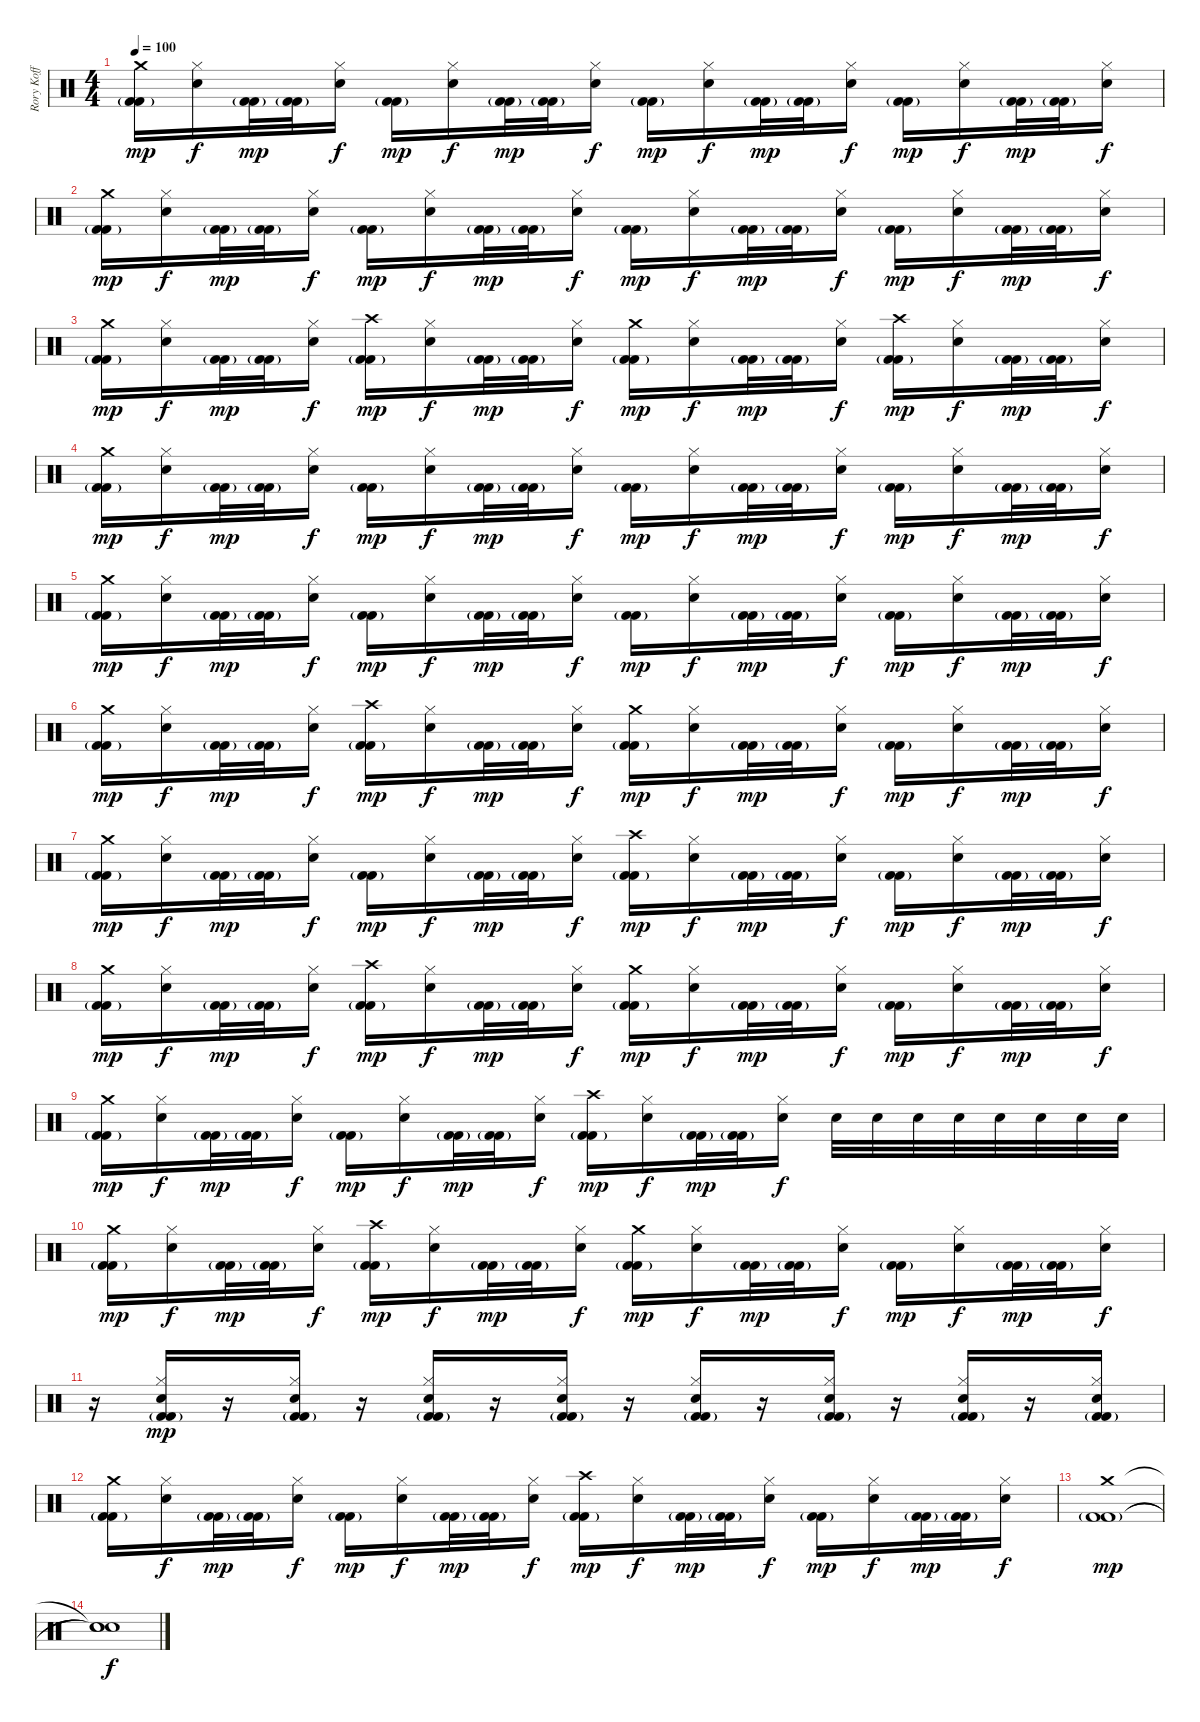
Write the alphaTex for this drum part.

\track ("Rory Koff" "Rory Koff") {instrument percussion}
\staff {score}
\articulation defaults
\ts (4 4)
\tempo 100
\clef neutral
\ks c
("Crash medium (hit)" "Kick (hit) 2"{g} "Kick (hit) 2").16{dy mp} ("Hi-Hat (closed)" "Snare (hit) 2").16{dy f} ("Kick (hit) 2"{g} "Kick (hit) 2").32{dy mp} ("Kick (hit) 2"{g} "Kick (hit) 2").32 ("Hi-Hat (closed)" "Snare (hit) 2").16{dy f} ("Kick (hit) 2"{g} "Kick (hit) 2").16{dy mp} ("Hi-Hat (closed)" "Snare (hit) 2").16{dy f} ("Kick (hit) 2"{g} "Kick (hit) 2").32{dy mp} ("Kick (hit) 2"{g} "Kick (hit) 2").32 ("Hi-Hat (closed)" "Snare (hit) 2").16{dy f} ("Kick (hit) 2"{g} "Kick (hit) 2").16{dy mp} ("Hi-Hat (closed)" "Snare (hit) 2").16{dy f} ("Kick (hit) 2"{g} "Kick (hit) 2").32{dy mp} ("Kick (hit) 2"{g} "Kick (hit) 2").32 ("Hi-Hat (closed)" "Snare (hit) 2").16{dy f} ("Kick (hit) 2"{g} "Kick (hit) 2").16{dy mp} ("Hi-Hat (closed)" "Snare (hit) 2").16{dy f} ("Kick (hit) 2"{g} "Kick (hit) 2").32{dy mp} ("Kick (hit) 2"{g} "Kick (hit) 2").32 ("Hi-Hat (closed)" "Snare (hit) 2").16{dy f} |
("Crash medium (hit)" "Kick (hit) 2"{g} "Kick (hit) 2").16{dy mp} ("Hi-Hat (closed)" "Snare (hit) 2").16{dy f} ("Kick (hit) 2"{g} "Kick (hit) 2").32{dy mp} ("Kick (hit) 2"{g} "Kick (hit) 2").32 ("Hi-Hat (closed)" "Snare (hit) 2").16{dy f} ("Kick (hit) 2"{g} "Kick (hit) 2").16{dy mp} ("Hi-Hat (closed)" "Snare (hit) 2").16{dy f} ("Kick (hit) 2"{g} "Kick (hit) 2").32{dy mp} ("Kick (hit) 2"{g} "Kick (hit) 2").32 ("Hi-Hat (closed)" "Snare (hit) 2").16{dy f} ("Kick (hit) 2"{g} "Kick (hit) 2").16{dy mp} ("Hi-Hat (closed)" "Snare (hit) 2").16{dy f} ("Kick (hit) 2"{g} "Kick (hit) 2").32{dy mp} ("Kick (hit) 2"{g} "Kick (hit) 2").32 ("Hi-Hat (closed)" "Snare (hit) 2").16{dy f} ("Kick (hit) 2"{g} "Kick (hit) 2").16{dy mp} ("Hi-Hat (closed)" "Snare (hit) 2").16{dy f} ("Kick (hit) 2"{g} "Kick (hit) 2").32{dy mp} ("Kick (hit) 2"{g} "Kick (hit) 2").32 ("Hi-Hat (closed)" "Snare (hit) 2").16{dy f} |
("Crash medium (hit)" "Kick (hit) 2"{g} "Kick (hit) 2").16{dy mp} ("Hi-Hat (closed)" "Snare (hit) 2").16{dy f} ("Kick (hit) 2"{g} "Kick (hit) 2").32{dy mp} ("Kick (hit) 2"{g} "Kick (hit) 2").32 ("Hi-Hat (closed)" "Snare (hit) 2").16{dy f} ("Crash high (hit)" "Kick (hit) 2"{g} "Kick (hit) 2").16{dy mp} ("Hi-Hat (closed)" "Snare (hit) 2").16{dy f} ("Kick (hit) 2"{g} "Kick (hit) 2").32{dy mp} ("Kick (hit) 2"{g} "Kick (hit) 2").32 ("Hi-Hat (closed)" "Snare (hit) 2").16{dy f} ("Crash medium (hit)" "Kick (hit) 2"{g} "Kick (hit) 2").16{dy mp} ("Hi-Hat (closed)" "Snare (hit) 2").16{dy f} ("Kick (hit) 2"{g} "Kick (hit) 2").32{dy mp} ("Kick (hit) 2"{g} "Kick (hit) 2").32 ("Hi-Hat (closed)" "Snare (hit) 2").16{dy f} ("Crash high (hit)" "Kick (hit) 2"{g} "Kick (hit) 2").16{dy mp} ("Hi-Hat (closed)" "Snare (hit) 2").16{dy f} ("Kick (hit) 2"{g} "Kick (hit) 2").32{dy mp} ("Kick (hit) 2"{g} "Kick (hit) 2").32 ("Hi-Hat (closed)" "Snare (hit) 2").16{dy f} |
("Crash medium (hit)" "Kick (hit) 2"{g} "Kick (hit) 2").16{dy mp} ("Hi-Hat (closed)" "Snare (hit) 2").16{dy f} ("Kick (hit) 2"{g} "Kick (hit) 2").32{dy mp} ("Kick (hit) 2"{g} "Kick (hit) 2").32 ("Hi-Hat (closed)" "Snare (hit) 2").16{dy f} ("Kick (hit) 2"{g} "Kick (hit) 2").16{dy mp} ("Hi-Hat (closed)" "Snare (hit) 2").16{dy f} ("Kick (hit) 2"{g} "Kick (hit) 2").32{dy mp} ("Kick (hit) 2"{g} "Kick (hit) 2").32 ("Hi-Hat (closed)" "Snare (hit) 2").16{dy f} ("Kick (hit) 2"{g} "Kick (hit) 2").16{dy mp} ("Hi-Hat (closed)" "Snare (hit) 2").16{dy f} ("Kick (hit) 2"{g} "Kick (hit) 2").32{dy mp} ("Kick (hit) 2"{g} "Kick (hit) 2").32 ("Hi-Hat (closed)" "Snare (hit) 2").16{dy f} ("Kick (hit) 2"{g} "Kick (hit) 2").16{dy mp} ("Hi-Hat (closed)" "Snare (hit) 2").16{dy f} ("Kick (hit) 2"{g} "Kick (hit) 2").32{dy mp} ("Kick (hit) 2"{g} "Kick (hit) 2").32 ("Hi-Hat (closed)" "Snare (hit) 2").16{dy f} |
("Crash medium (hit)" "Kick (hit) 2"{g} "Kick (hit) 2").16{dy mp} ("Hi-Hat (closed)" "Snare (hit) 2").16{dy f} ("Kick (hit) 2"{g} "Kick (hit) 2").32{dy mp} ("Kick (hit) 2"{g} "Kick (hit) 2").32 ("Hi-Hat (closed)" "Snare (hit) 2").16{dy f} ("Kick (hit) 2"{g} "Kick (hit) 2").16{dy mp} ("Hi-Hat (closed)" "Snare (hit) 2").16{dy f} ("Kick (hit) 2"{g} "Kick (hit) 2").32{dy mp} ("Kick (hit) 2"{g} "Kick (hit) 2").32 ("Hi-Hat (closed)" "Snare (hit) 2").16{dy f} ("Kick (hit) 2"{g} "Kick (hit) 2").16{dy mp} ("Hi-Hat (closed)" "Snare (hit) 2").16{dy f} ("Kick (hit) 2"{g} "Kick (hit) 2").32{dy mp} ("Kick (hit) 2"{g} "Kick (hit) 2").32 ("Hi-Hat (closed)" "Snare (hit) 2").16{dy f} ("Kick (hit) 2"{g} "Kick (hit) 2").16{dy mp} ("Hi-Hat (closed)" "Snare (hit) 2").16{dy f} ("Kick (hit) 2"{g} "Kick (hit) 2").32{dy mp} ("Kick (hit) 2"{g} "Kick (hit) 2").32 ("Hi-Hat (closed)" "Snare (hit) 2").16{dy f} |
("Crash medium (hit)" "Kick (hit) 2"{g} "Kick (hit) 2").16{dy mp} ("Hi-Hat (closed)" "Snare (hit) 2").16{dy f} ("Kick (hit) 2"{g} "Kick (hit) 2").32{dy mp} ("Kick (hit) 2"{g} "Kick (hit) 2").32 ("Hi-Hat (closed)" "Snare (hit) 2").16{dy f} ("Crash high (hit)" "Kick (hit) 2"{g} "Kick (hit) 2").16{dy mp} ("Hi-Hat (closed)" "Snare (hit) 2").16{dy f} ("Kick (hit) 2"{g} "Kick (hit) 2").32{dy mp} ("Kick (hit) 2"{g} "Kick (hit) 2").32 ("Hi-Hat (closed)" "Snare (hit) 2").16{dy f} ("Crash medium (hit)" "Kick (hit) 2"{g} "Kick (hit) 2").16{dy mp} ("Hi-Hat (closed)" "Snare (hit) 2").16{dy f} ("Kick (hit) 2"{g} "Kick (hit) 2").32{dy mp} ("Kick (hit) 2"{g} "Kick (hit) 2").32 ("Hi-Hat (closed)" "Snare (hit) 2").16{dy f} ("Kick (hit) 2"{g} "Kick (hit) 2").16{dy mp} ("Hi-Hat (closed)" "Snare (hit) 2").16{dy f} ("Kick (hit) 2"{g} "Kick (hit) 2").32{dy mp} ("Kick (hit) 2"{g} "Kick (hit) 2").32 ("Hi-Hat (closed)" "Snare (hit) 2").16{dy f} |
("Crash medium (hit)" "Kick (hit) 2"{g} "Kick (hit) 2").16{dy mp} ("Hi-Hat (closed)" "Snare (hit) 2").16{dy f} ("Kick (hit) 2"{g} "Kick (hit) 2").32{dy mp} ("Kick (hit) 2"{g} "Kick (hit) 2").32 ("Hi-Hat (closed)" "Snare (hit) 2").16{dy f} ("Kick (hit) 2"{g} "Kick (hit) 2").16{dy mp} ("Hi-Hat (closed)" "Snare (hit) 2").16{dy f} ("Kick (hit) 2"{g} "Kick (hit) 2").32{dy mp} ("Kick (hit) 2"{g} "Kick (hit) 2").32 ("Hi-Hat (closed)" "Snare (hit) 2").16{dy f} ("Crash high (hit)" "Kick (hit) 2"{g} "Kick (hit) 2").16{dy mp} ("Hi-Hat (closed)" "Snare (hit) 2").16{dy f} ("Kick (hit) 2"{g} "Kick (hit) 2").32{dy mp} ("Kick (hit) 2"{g} "Kick (hit) 2").32 ("Hi-Hat (closed)" "Snare (hit) 2").16{dy f} ("Kick (hit) 2"{g} "Kick (hit) 2").16{dy mp} ("Hi-Hat (closed)" "Snare (hit) 2").16{dy f} ("Kick (hit) 2"{g} "Kick (hit) 2").32{dy mp} ("Kick (hit) 2"{g} "Kick (hit) 2").32 ("Hi-Hat (closed)" "Snare (hit) 2").16{dy f} |
("Crash medium (hit)" "Kick (hit) 2"{g} "Kick (hit) 2").16{dy mp} ("Hi-Hat (closed)" "Snare (hit) 2").16{dy f} ("Kick (hit) 2"{g} "Kick (hit) 2").32{dy mp} ("Kick (hit) 2"{g} "Kick (hit) 2").32 ("Hi-Hat (closed)" "Snare (hit) 2").16{dy f} ("Crash high (hit)" "Kick (hit) 2"{g} "Kick (hit) 2").16{dy mp} ("Hi-Hat (closed)" "Snare (hit) 2").16{dy f} ("Kick (hit) 2"{g} "Kick (hit) 2").32{dy mp} ("Kick (hit) 2"{g} "Kick (hit) 2").32 ("Hi-Hat (closed)" "Snare (hit) 2").16{dy f} ("Crash medium (hit)" "Kick (hit) 2"{g} "Kick (hit) 2").16{dy mp} ("Hi-Hat (closed)" "Snare (hit) 2").16{dy f} ("Kick (hit) 2"{g} "Kick (hit) 2").32{dy mp} ("Kick (hit) 2"{g} "Kick (hit) 2").32 ("Hi-Hat (closed)" "Snare (hit) 2").16{dy f} ("Kick (hit) 2"{g} "Kick (hit) 2").16{dy mp} ("Hi-Hat (closed)" "Snare (hit) 2").16{dy f} ("Kick (hit) 2"{g} "Kick (hit) 2").32{dy mp} ("Kick (hit) 2"{g} "Kick (hit) 2").32 ("Hi-Hat (closed)" "Snare (hit) 2").16{dy f} |
("Crash medium (hit)" "Kick (hit) 2"{g} "Kick (hit) 2").16{dy mp} ("Hi-Hat (closed)" "Snare (hit) 2").16{dy f} ("Kick (hit) 2"{g} "Kick (hit) 2").32{dy mp} ("Kick (hit) 2"{g} "Kick (hit) 2").32 ("Hi-Hat (closed)" "Snare (hit) 2").16{dy f} ("Kick (hit) 2"{g} "Kick (hit) 2").16{dy mp} ("Hi-Hat (closed)" "Snare (hit) 2").16{dy f} ("Kick (hit) 2"{g} "Kick (hit) 2").32{dy mp} ("Kick (hit) 2"{g} "Kick (hit) 2").32 ("Hi-Hat (closed)" "Snare (hit) 2").16{dy f} ("Crash high (hit)" "Kick (hit) 2"{g} "Kick (hit) 2").16{dy mp} ("Hi-Hat (closed)" "Snare (hit) 2").16{dy f} ("Kick (hit) 2"{g} "Kick (hit) 2").32{dy mp} ("Kick (hit) 2"{g} "Kick (hit) 2").32 ("Hi-Hat (closed)" "Snare (hit) 2").16{dy f} "Snare (hit) 2".32 "Snare (hit) 2".32 "Snare (hit) 2".32 "Snare (hit) 2".32 "Snare (hit) 2".32 "Snare (hit) 2".32 "Snare (hit) 2".32 "Snare (hit) 2".32 |
("Crash medium (hit)" "Kick (hit) 2"{g} "Kick (hit) 2").16{dy mp} ("Hi-Hat (closed)" "Snare (hit) 2").16{dy f} ("Kick (hit) 2"{g} "Kick (hit) 2").32{dy mp} ("Kick (hit) 2"{g} "Kick (hit) 2").32 ("Hi-Hat (closed)" "Snare (hit) 2").16{dy f} ("Crash high (hit)" "Kick (hit) 2"{g} "Kick (hit) 2").16{dy mp} ("Hi-Hat (closed)" "Snare (hit) 2").16{dy f} ("Kick (hit) 2"{g} "Kick (hit) 2").32{dy mp} ("Kick (hit) 2"{g} "Kick (hit) 2").32 ("Hi-Hat (closed)" "Snare (hit) 2").16{dy f} ("Crash medium (hit)" "Kick (hit) 2"{g} "Kick (hit) 2").16{dy mp} ("Hi-Hat (closed)" "Snare (hit) 2").16{dy f} ("Kick (hit) 2"{g} "Kick (hit) 2").32{dy mp} ("Kick (hit) 2"{g} "Kick (hit) 2").32 ("Hi-Hat (closed)" "Snare (hit) 2").16{dy f} ("Kick (hit) 2"{g} "Kick (hit) 2").16{dy mp} ("Hi-Hat (closed)" "Snare (hit) 2").16{dy f} ("Kick (hit) 2"{g} "Kick (hit) 2").32{dy mp} ("Kick (hit) 2"{g} "Kick (hit) 2").32 ("Hi-Hat (closed)" "Snare (hit) 2").16{dy f} |
r.16 ("Hi-Hat (closed)" "Snare (hit) 2" "Kick (hit) 2"{g} "Kick (hit) 2").16{dy mp} r.16 ("Hi-Hat (closed)" "Snare (hit) 2" "Kick (hit) 2"{g} "Kick (hit) 2").16 r.16 ("Hi-Hat (closed)" "Snare (hit) 2" "Kick (hit) 2"{g} "Kick (hit) 2").16 r.16 ("Hi-Hat (closed)" "Snare (hit) 2" "Kick (hit) 2"{g} "Kick (hit) 2").16 r.16 ("Hi-Hat (closed)" "Snare (hit) 2" "Kick (hit) 2"{g} "Kick (hit) 2").16 r.16 ("Hi-Hat (closed)" "Snare (hit) 2" "Kick (hit) 2"{g} "Kick (hit) 2").16 r.16 ("Hi-Hat (closed)" "Snare (hit) 2" "Kick (hit) 2"{g} "Kick (hit) 2").16 r.16 ("Hi-Hat (closed)" "Snare (hit) 2" "Kick (hit) 2"{g} "Kick (hit) 2").16 |
("Crash medium (hit)" "Kick (hit) 2"{g} "Kick (hit) 2").16 ("Hi-Hat (closed)" "Snare (hit) 2").16{dy f} ("Kick (hit) 2"{g} "Kick (hit) 2").32{dy mp} ("Kick (hit) 2"{g} "Kick (hit) 2").32 ("Hi-Hat (closed)" "Snare (hit) 2").16{dy f} ("Kick (hit) 2"{g} "Kick (hit) 2").16{dy mp} ("Hi-Hat (closed)" "Snare (hit) 2").16{dy f} ("Kick (hit) 2"{g} "Kick (hit) 2").32{dy mp} ("Kick (hit) 2"{g} "Kick (hit) 2").32 ("Hi-Hat (closed)" "Snare (hit) 2").16{dy f} ("Crash high (hit)" "Kick (hit) 2"{g} "Kick (hit) 2").16{dy mp} ("Hi-Hat (closed)" "Snare (hit) 2").16{dy f} ("Kick (hit) 2"{g} "Kick (hit) 2").32{dy mp} ("Kick (hit) 2"{g} "Kick (hit) 2").32 ("Hi-Hat (closed)" "Snare (hit) 2").16{dy f} ("Kick (hit) 2"{g} "Kick (hit) 2").16{dy mp} ("Hi-Hat (closed)" "Snare (hit) 2").16{dy f} ("Kick (hit) 2"{g} "Kick (hit) 2").32{dy mp} ("Kick (hit) 2"{g} "Kick (hit) 2").32 ("Hi-Hat (closed)" "Snare (hit) 2").16{dy f} |
("Crash medium (hit)" "Kick (hit) 2"{g} "Kick (hit) 2").1{dy mp} |
("Snare (hit)"{t} "Snare (hit)"{t} "Snare (hit)"{t}).1{dy f}
